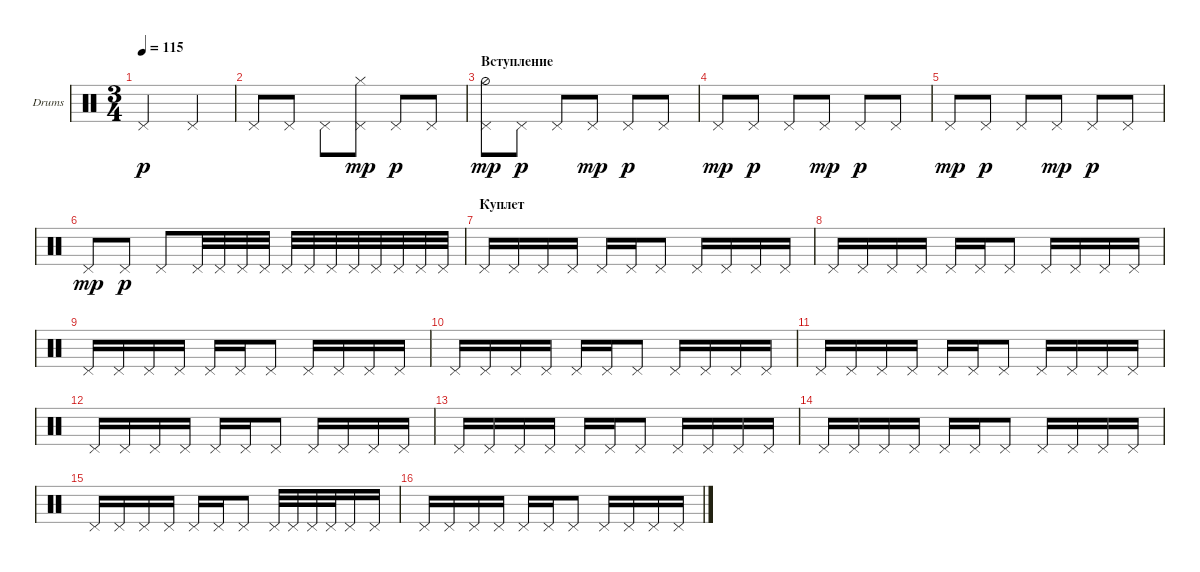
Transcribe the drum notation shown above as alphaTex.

\defaultSystemsLayout 4
\bracketExtendMode groupsimilarinstruments
\firstSystemTrackNameOrientation horizontal
\otherSystemsTrackNameOrientation horizontal
\track ("Е. Кулаков" "Drums") {instrument percussion}
\staff {score}
\articulation defaults
\ts (3 4)
\tempo 115
\clef neutral
\scale
0.474178
\ks c "Pedal Hi-Hat (hit)".2{dy p} "Pedal Hi-Hat (hit)".4
|
\scale
0.262911 "Pedal Hi-Hat (hit)".8 "Pedal Hi-Hat (hit)".8 "Pedal Hi-Hat (hit)".8 ("Pedal Hi-Hat (hit)" "Hi-Hat (closed)").8{dy mp} "Pedal Hi-Hat (hit)".8{dy p} "Pedal Hi-Hat (hit)".8 |
\section ("" "Вступление")
\scale
0.262911 ("Pedal Hi-Hat (hit)" "Hi-Hat (half)").8{dy mp} "Pedal Hi-Hat (hit)".8{dy p} "Pedal Hi-Hat (hit)".8 "Pedal Hi-Hat (hit)".8{dy mp} "Pedal Hi-Hat (hit)".8{dy p} "Pedal Hi-Hat (hit)".8 |
\scale
0.333333 "Pedal Hi-Hat (hit)".8{dy mp} "Pedal Hi-Hat (hit)".8{dy p} "Pedal Hi-Hat (hit)".8 "Pedal Hi-Hat (hit)".8{dy mp} "Pedal Hi-Hat (hit)".8{dy p} "Pedal Hi-Hat (hit)".8 |
\scale
0.333333 "Pedal Hi-Hat (hit)".8{dy mp} "Pedal Hi-Hat (hit)".8{dy p} "Pedal Hi-Hat (hit)".8 "Pedal Hi-Hat (hit)".8{dy mp} "Pedal Hi-Hat (hit)".8{dy p} "Pedal Hi-Hat (hit)".8 |
\scale
0.333333 "Pedal Hi-Hat (hit)".8{dy mp} "Pedal Hi-Hat (hit)".8{dy p} "Pedal Hi-Hat (hit)".8 "Pedal Hi-Hat (hit)".32 "Pedal Hi-Hat (hit)".32 "Pedal Hi-Hat (hit)".32 "Pedal Hi-Hat (hit)".32 "Pedal Hi-Hat (hit)".32 "Pedal Hi-Hat (hit)".32 "Pedal Hi-Hat (hit)".32 "Pedal Hi-Hat (hit)".32 "Pedal Hi-Hat (hit)".32 "Pedal Hi-Hat (hit)".32 "Pedal Hi-Hat (hit)".32 "Pedal Hi-Hat (hit)".32 |
\section ("" "Куплет")
"Pedal Hi-Hat (hit)".16 "Pedal Hi-Hat (hit)".16 "Pedal Hi-Hat (hit)".16 "Pedal Hi-Hat (hit)".16 "Pedal Hi-Hat (hit)".16 "Pedal Hi-Hat (hit)".16 "Pedal Hi-Hat (hit)".8 "Pedal Hi-Hat (hit)".16 "Pedal Hi-Hat (hit)".16 "Pedal Hi-Hat (hit)".16 "Pedal Hi-Hat (hit)".16 |
"Pedal Hi-Hat (hit)".16 "Pedal Hi-Hat (hit)".16 "Pedal Hi-Hat (hit)".16 "Pedal Hi-Hat (hit)".16 "Pedal Hi-Hat (hit)".16 "Pedal Hi-Hat (hit)".16 "Pedal Hi-Hat (hit)".8 "Pedal Hi-Hat (hit)".16 "Pedal Hi-Hat (hit)".16 "Pedal Hi-Hat (hit)".16 "Pedal Hi-Hat (hit)".16 |
"Pedal Hi-Hat (hit)".16 "Pedal Hi-Hat (hit)".16 "Pedal Hi-Hat (hit)".16 "Pedal Hi-Hat (hit)".16 "Pedal Hi-Hat (hit)".16 "Pedal Hi-Hat (hit)".16 "Pedal Hi-Hat (hit)".8 "Pedal Hi-Hat (hit)".16 "Pedal Hi-Hat (hit)".16 "Pedal Hi-Hat (hit)".16 "Pedal Hi-Hat (hit)".16 |
"Pedal Hi-Hat (hit)".16 "Pedal Hi-Hat (hit)".16 "Pedal Hi-Hat (hit)".16 "Pedal Hi-Hat (hit)".16 "Pedal Hi-Hat (hit)".16 "Pedal Hi-Hat (hit)".16 "Pedal Hi-Hat (hit)".8 "Pedal Hi-Hat (hit)".16 "Pedal Hi-Hat (hit)".16 "Pedal Hi-Hat (hit)".16 "Pedal Hi-Hat (hit)".16 |
"Pedal Hi-Hat (hit)".16 "Pedal Hi-Hat (hit)".16 "Pedal Hi-Hat (hit)".16 "Pedal Hi-Hat (hit)".16 "Pedal Hi-Hat (hit)".16 "Pedal Hi-Hat (hit)".16 "Pedal Hi-Hat (hit)".8 "Pedal Hi-Hat (hit)".16 "Pedal Hi-Hat (hit)".16 "Pedal Hi-Hat (hit)".16 "Pedal Hi-Hat (hit)".16 |
"Pedal Hi-Hat (hit)".16 "Pedal Hi-Hat (hit)".16 "Pedal Hi-Hat (hit)".16 "Pedal Hi-Hat (hit)".16 "Pedal Hi-Hat (hit)".16 "Pedal Hi-Hat (hit)".16 "Pedal Hi-Hat (hit)".8 "Pedal Hi-Hat (hit)".16 "Pedal Hi-Hat (hit)".16 "Pedal Hi-Hat (hit)".16 "Pedal Hi-Hat (hit)".16 |
"Pedal Hi-Hat (hit)".16 "Pedal Hi-Hat (hit)".16 "Pedal Hi-Hat (hit)".16 "Pedal Hi-Hat (hit)".16 "Pedal Hi-Hat (hit)".16 "Pedal Hi-Hat (hit)".16 "Pedal Hi-Hat (hit)".8 "Pedal Hi-Hat (hit)".16 "Pedal Hi-Hat (hit)".16 "Pedal Hi-Hat (hit)".16 "Pedal Hi-Hat (hit)".16 |
"Pedal Hi-Hat (hit)".16 "Pedal Hi-Hat (hit)".16 "Pedal Hi-Hat (hit)".16 "Pedal Hi-Hat (hit)".16 "Pedal Hi-Hat (hit)".16 "Pedal Hi-Hat (hit)".16 "Pedal Hi-Hat (hit)".8 "Pedal Hi-Hat (hit)".16 "Pedal Hi-Hat (hit)".16 "Pedal Hi-Hat (hit)".16 "Pedal Hi-Hat (hit)".16 |
"Pedal Hi-Hat (hit)".16 "Pedal Hi-Hat (hit)".16 "Pedal Hi-Hat (hit)".16 "Pedal Hi-Hat (hit)".16 "Pedal Hi-Hat (hit)".16 "Pedal Hi-Hat (hit)".16 "Pedal Hi-Hat (hit)".8 "Pedal Hi-Hat (hit)".32 "Pedal Hi-Hat (hit)".32 "Pedal Hi-Hat (hit)".32 "Pedal Hi-Hat (hit)".32 "Pedal Hi-Hat (hit)".16 "Pedal Hi-Hat (hit)".16 |
"Pedal Hi-Hat (hit)".16 "Pedal Hi-Hat (hit)".16 "Pedal Hi-Hat (hit)".16 "Pedal Hi-Hat (hit)".16 "Pedal Hi-Hat (hit)".16 "Pedal Hi-Hat (hit)".16 "Pedal Hi-Hat (hit)".8 "Pedal Hi-Hat (hit)".16 "Pedal Hi-Hat (hit)".16 "Pedal Hi-Hat (hit)".16 "Pedal Hi-Hat (hit)".16
